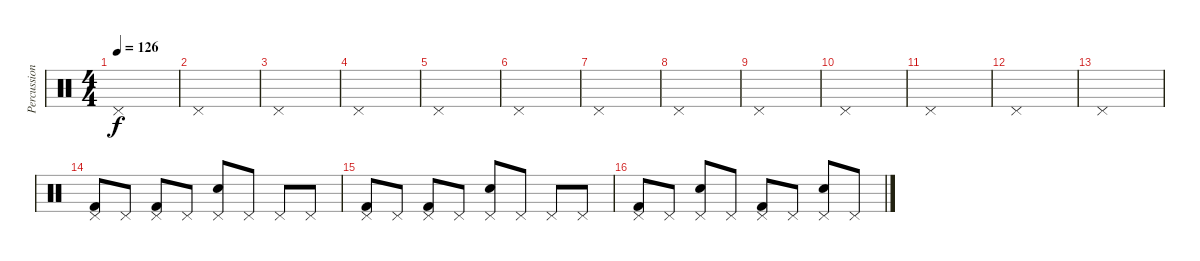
\track ("Percussion" "Percussion") {instrument percussion}
\staff {score}
\articulation defaults
\ts (4 4)
\tempo 126
\clef neutral
\ks c "Pedal Hi-Hat (hit)".1{dy f}
|
"Pedal Hi-Hat (hit)".1 |
"Pedal Hi-Hat (hit)".1 |
"Pedal Hi-Hat (hit)".1 |
"Pedal Hi-Hat (hit)".1 |
"Pedal Hi-Hat (hit)".1 |
"Pedal Hi-Hat (hit)".1 |
"Pedal Hi-Hat (hit)".1 |
"Pedal Hi-Hat (hit)".1 |
"Pedal Hi-Hat (hit)".1 |
"Pedal Hi-Hat (hit)".1 |
"Pedal Hi-Hat (hit)".1 |
"Pedal Hi-Hat (hit)".1 |
("Kick (hit) 2" "Pedal Hi-Hat (hit)").8 "Pedal Hi-Hat (hit)".8 ("Kick (hit) 2" "Pedal Hi-Hat (hit)").8 "Pedal Hi-Hat (hit)".8 ("Electric Snare (hit)" "Pedal Hi-Hat (hit)").8 "Pedal Hi-Hat (hit)".8 "Pedal Hi-Hat (hit)".8 "Pedal Hi-Hat (hit)".8 |
("Kick (hit) 2" "Pedal Hi-Hat (hit)").8 "Pedal Hi-Hat (hit)".8 ("Kick (hit) 2" "Pedal Hi-Hat (hit)").8 "Pedal Hi-Hat (hit)".8 ("Electric Snare (hit)" "Pedal Hi-Hat (hit)").8 "Pedal Hi-Hat (hit)".8 "Pedal Hi-Hat (hit)".8 "Pedal Hi-Hat (hit)".8 |
("Kick (hit) 2" "Pedal Hi-Hat (hit)").8 "Pedal Hi-Hat (hit)".8 ("Electric Snare (hit)" "Pedal Hi-Hat (hit)").8 "Pedal Hi-Hat (hit)".8 ("Kick (hit) 2" "Pedal Hi-Hat (hit)").8 "Pedal Hi-Hat (hit)".8 ("Electric Snare (hit)" "Pedal Hi-Hat (hit)").8 "Pedal Hi-Hat (hit)".8
